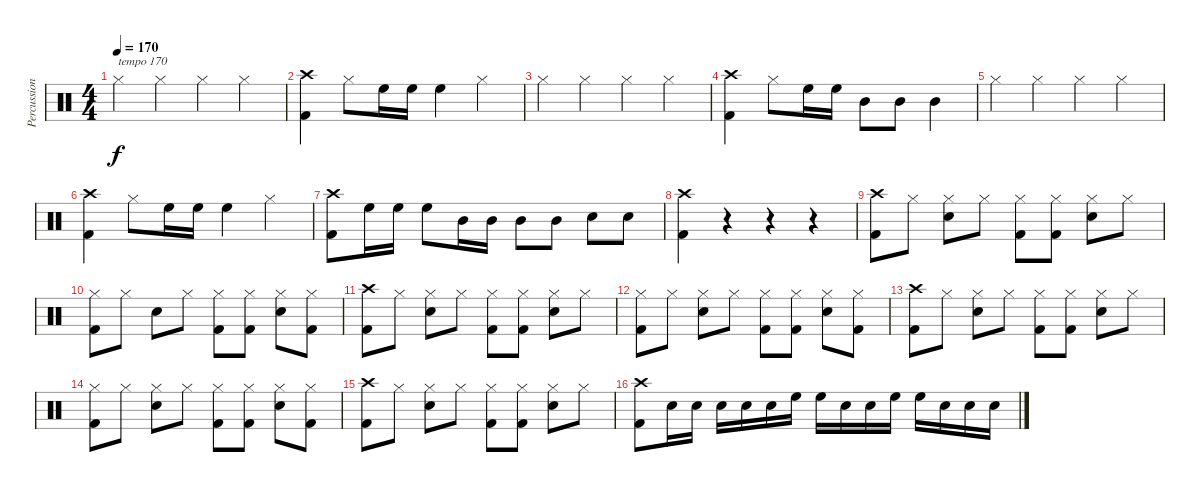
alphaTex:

\track ("Percussions" "Percussion") {instrument percussion}
\staff {score}
\articulation defaults
\ts (4 4)
\tempo 170
\clef neutral
\ks c "Hi-Hat (closed)".4{txt "tempo 170" dy f} "Hi-Hat (closed)".4 "Hi-Hat (closed)".4 "Hi-Hat (closed)".4
|
("Crash high (hit)" "Kick (hit) 2").4 "Hi-Hat (closed)".8 "High Floor Tom (hit)".16 "High Floor Tom (hit)".16 "High Floor Tom (hit)".4 "Hi-Hat (closed)".4 |
"Hi-Hat (closed)".4 "Hi-Hat (closed)".4 "Hi-Hat (closed)".4 "Hi-Hat (closed)".4 |
("Crash high (hit)" "Kick (hit) 2").4 "Hi-Hat (closed)".8 "High Floor Tom (hit)".16 "High Floor Tom (hit)".16 "Mid Tom (hit)".8 "Mid Tom (hit)".8 "Mid Tom (hit)".4 |
"Hi-Hat (closed)".4 "Hi-Hat (closed)".4 "Hi-Hat (closed)".4 "Hi-Hat (closed)".4 |
("Kick (hit) 2" "Crash high (hit)").4 "Hi-Hat (closed)".8 "High Floor Tom (hit)".16 "High Floor Tom (hit)".16 "High Floor Tom (hit)".4 "Hi-Hat (closed)".4 |
("Crash high (hit)" "Kick (hit) 2").8 "High Floor Tom (hit)".16 "High Floor Tom (hit)".16 "High Floor Tom (hit)".8 "Mid Tom (hit)".16 "Mid Tom (hit)".16 "Mid Tom (hit)".8 "Mid Tom (hit)".8 "Snare (hit) 2".8 "Snare (hit) 2".8 |
("Crash high (hit)" "Kick (hit) 2").4 r.4 r.4 r.4 |
("Crash high (hit)" "Kick (hit) 2").8 "Hi-Hat (closed)".8 ("Hi-Hat (closed)" "Snare (hit) 2").8 "Hi-Hat (closed)".8 ("Hi-Hat (closed)" "Kick (hit) 2").8 ("Hi-Hat (closed)" "Kick (hit) 2").8 ("Hi-Hat (closed)" "Snare (hit) 2").8 "Hi-Hat (closed)".8 |
("Kick (hit) 2" "Hi-Hat (closed)").8 "Hi-Hat (closed)".8 "Snare (hit) 2".8 "Hi-Hat (closed)".8 ("Kick (hit) 2" "Hi-Hat (closed)").8 ("Kick (hit) 2" "Hi-Hat (closed)").8 ("Snare (hit) 2" "Hi-Hat (closed)").8 ("Kick (hit) 2" "Hi-Hat (closed)").8 |
("Kick (hit) 2" "Crash high (hit)").8 "Hi-Hat (closed)".8 ("Snare (hit) 2" "Hi-Hat (closed)").8 "Hi-Hat (closed)".8 ("Kick (hit) 2" "Hi-Hat (closed)").8 ("Kick (hit) 2" "Hi-Hat (closed)").8 ("Snare (hit) 2" "Hi-Hat (closed)").8 "Hi-Hat (closed)".8 |
("Kick (hit) 2" "Hi-Hat (closed)").8 "Hi-Hat (closed)".8 ("Snare (hit) 2" "Hi-Hat (closed)").8 "Hi-Hat (closed)".8 ("Kick (hit) 2" "Hi-Hat (closed)").8 ("Kick (hit) 2" "Hi-Hat (closed)").8 ("Snare (hit) 2" "Hi-Hat (closed)").8 ("Kick (hit) 2" "Hi-Hat (closed)").8 |
("Kick (hit) 2" "Crash high (hit)").8 "Hi-Hat (closed)".8 ("Snare (hit) 2" "Hi-Hat (closed)").8 "Hi-Hat (closed)".8 ("Kick (hit) 2" "Hi-Hat (closed)").8 ("Kick (hit) 2" "Hi-Hat (closed)").8 ("Snare (hit) 2" "Hi-Hat (closed)").8 "Hi-Hat (closed)".8 |
("Kick (hit) 2" "Hi-Hat (closed)").8 "Hi-Hat (closed)".8 ("Snare (hit) 2" "Hi-Hat (closed)").8 "Hi-Hat (closed)".8 ("Kick (hit) 2" "Hi-Hat (closed)").8 ("Kick (hit) 2" "Hi-Hat (closed)").8 ("Snare (hit) 2" "Hi-Hat (closed)").8 ("Kick (hit) 2" "Hi-Hat (closed)").8 |
("Kick (hit) 2" "Crash high (hit)").8 "Hi-Hat (closed)".8 ("Snare (hit) 2" "Hi-Hat (closed)").8 "Hi-Hat (closed)".8 ("Kick (hit) 2" "Hi-Hat (closed)").8 ("Kick (hit) 2" "Hi-Hat (closed)").8 ("Snare (hit) 2" "Hi-Hat (closed)").8 "Hi-Hat (closed)".8 |
("Crash high (hit)" "Kick (hit) 2").8 "Snare (hit) 2".16 "Snare (hit) 2".16 "Snare (hit) 2".16 "Snare (hit) 2".16 "Snare (hit) 2".16 "High Floor Tom (hit)".16 "High Floor Tom (hit)".16 "Snare (hit) 2".16 "Snare (hit) 2".16 "High Floor Tom (hit)".16 "High Floor Tom (hit)".16 "Snare (hit) 2".16 "Snare (hit) 2".16 "Snare (hit) 2".16
